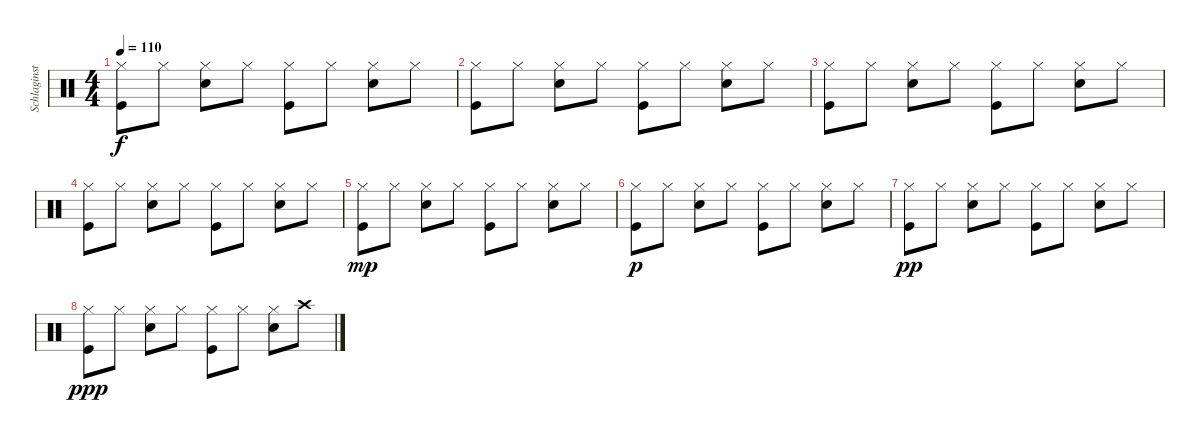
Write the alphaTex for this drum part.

\track ("Schlaginstrument" "Schlaginst") {instrument percussion}
\staff {score}
\articulation defaults
\ts (4 4)
\tempo 110
\clef neutral
\ks c
("Hi-Hat (closed)" "Kick (hit)").8{dy f} "Hi-Hat (closed)".8 ("Hi-Hat (closed)" "Snare (hit) 2").8 "Hi-Hat (closed)".8 ("Hi-Hat (closed)" "Kick (hit)").8 "Hi-Hat (closed)".8 ("Hi-Hat (closed)" "Snare (hit) 2").8 "Hi-Hat (closed)".8 |
("Hi-Hat (closed)" "Kick (hit)").8 "Hi-Hat (closed)".8 ("Hi-Hat (closed)" "Snare (hit) 2").8 "Hi-Hat (closed)".8 ("Hi-Hat (closed)" "Kick (hit)").8 "Hi-Hat (closed)".8 ("Hi-Hat (closed)" "Snare (hit) 2").8 "Hi-Hat (closed)".8 |
("Hi-Hat (closed)" "Kick (hit)").8 "Hi-Hat (closed)".8 ("Hi-Hat (closed)" "Snare (hit) 2").8 "Hi-Hat (closed)".8 ("Hi-Hat (closed)" "Kick (hit)").8 "Hi-Hat (closed)".8 ("Hi-Hat (closed)" "Snare (hit) 2").8 "Hi-Hat (closed)".8 |
("Hi-Hat (closed)" "Kick (hit)").8 "Hi-Hat (closed)".8 ("Hi-Hat (closed)" "Snare (hit) 2").8 "Hi-Hat (closed)".8 ("Hi-Hat (closed)" "Kick (hit)").8 "Hi-Hat (closed)".8 ("Hi-Hat (closed)" "Snare (hit) 2").8 "Hi-Hat (closed)".8 |
("Hi-Hat (closed)" "Kick (hit)").8{dy mp} "Hi-Hat (closed)".8 ("Hi-Hat (closed)" "Snare (hit) 2").8 "Hi-Hat (closed)".8 ("Hi-Hat (closed)" "Kick (hit)").8 "Hi-Hat (closed)".8 ("Hi-Hat (closed)" "Snare (hit) 2").8 "Hi-Hat (closed)".8 |
("Hi-Hat (closed)" "Kick (hit)").8{dy p} "Hi-Hat (closed)".8 ("Hi-Hat (closed)" "Snare (hit) 2").8 "Hi-Hat (closed)".8 ("Hi-Hat (closed)" "Kick (hit)").8 "Hi-Hat (closed)".8 ("Hi-Hat (closed)" "Snare (hit) 2").8 "Hi-Hat (closed)".8 |
("Hi-Hat (closed)" "Kick (hit)").8{dy pp} "Hi-Hat (closed)".8 ("Hi-Hat (closed)" "Snare (hit) 2").8 "Hi-Hat (closed)".8 ("Hi-Hat (closed)" "Kick (hit)").8 "Hi-Hat (closed)".8 ("Hi-Hat (closed)" "Snare (hit) 2").8 "Hi-Hat (closed)".8 |
("Hi-Hat (closed)" "Kick (hit)").8{dy ppp} "Hi-Hat (closed)".8 ("Hi-Hat (closed)" "Snare (hit) 2").8 "Hi-Hat (closed)".8 ("Hi-Hat (closed)" "Kick (hit)").8 "Hi-Hat (closed)".8 ("Hi-Hat (closed)" "Snare (hit) 2").8 "Crash high (hit)".8
